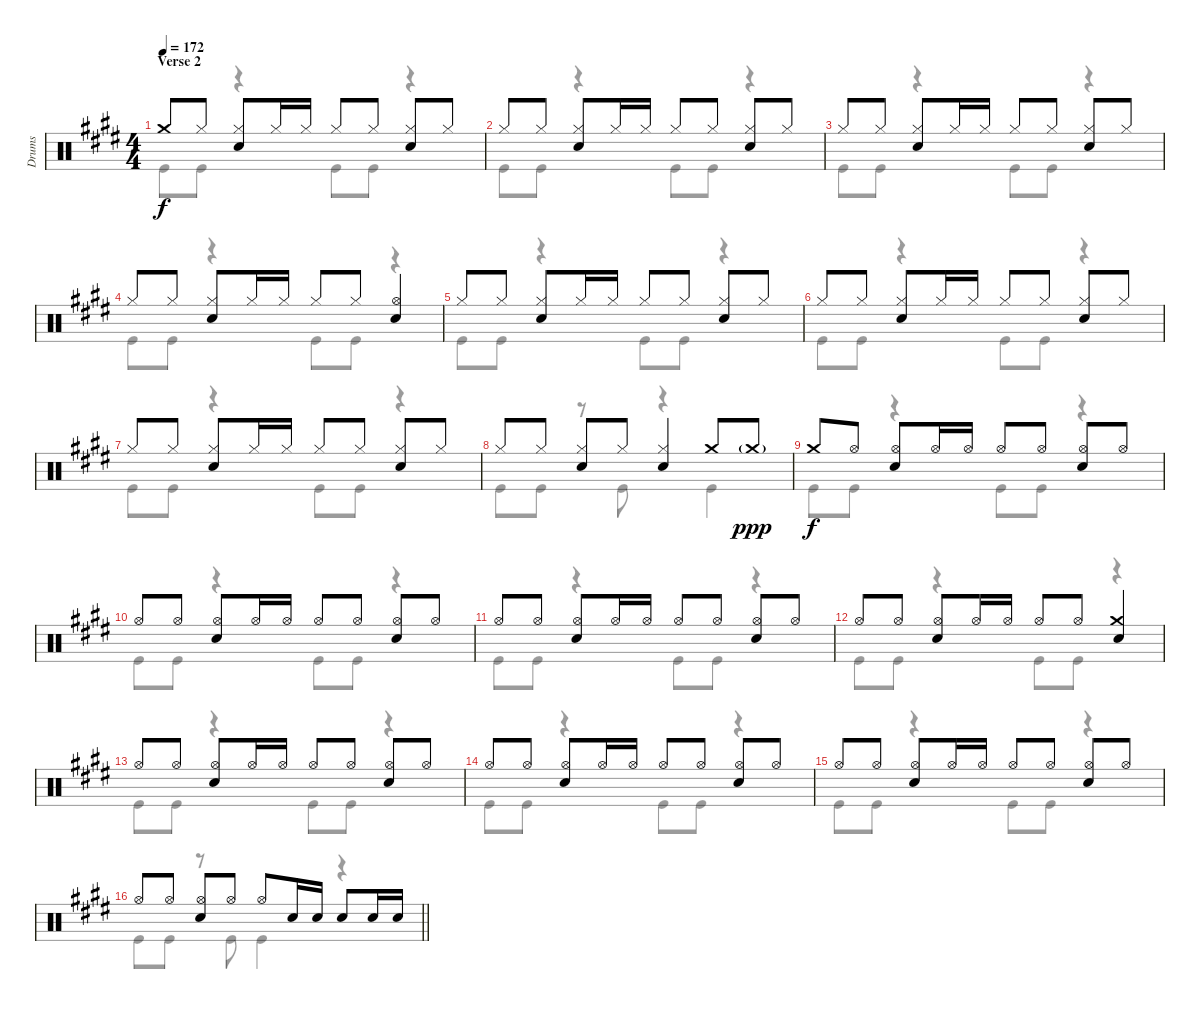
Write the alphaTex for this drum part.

\track ("Drums" "Drums") {instrument percussion}
\staff {score}
\articulation defaults
\voice
\ts (4 4)
\section ("" "Verse 2")
\tempo 172
\clef neutral
\ks e "Crash medium (hit)".8{dy f} "Hi-Hat (closed)".8
("Hi-Hat (closed)" "Electric Snare (hit)").8 "Hi-Hat (closed)".16 "Hi-Hat (closed)".16 "Hi-Hat (closed)".8 "Hi-Hat (closed)".8 ("Hi-Hat (closed)" "Electric Snare (hit)").8 "Hi-Hat (closed)".8 |
"Hi-Hat (closed)".8 "Hi-Hat (closed)".8 ("Hi-Hat (closed)" "Electric Snare (hit)").8 "Hi-Hat (closed)".16 "Hi-Hat (closed)".16 "Hi-Hat (closed)".8 "Hi-Hat (closed)".8 ("Hi-Hat (closed)" "Electric Snare (hit)").8 "Hi-Hat (closed)".8 |
"Hi-Hat (closed)".8 "Hi-Hat (closed)".8 ("Hi-Hat (closed)" "Electric Snare (hit)").8 "Hi-Hat (closed)".16 "Hi-Hat (closed)".16 "Hi-Hat (closed)".8 "Hi-Hat (closed)".8 ("Hi-Hat (closed)" "Electric Snare (hit)").8 "Hi-Hat (closed)".8 |
"Hi-Hat (closed)".8 "Hi-Hat (closed)".8 ("Hi-Hat (closed)" "Electric Snare (hit)").8 "Hi-Hat (closed)".16 "Hi-Hat (closed)".16 "Hi-Hat (closed)".8 "Hi-Hat (closed)".8 ("Hi-Hat (open)" "Electric Snare (hit)").4 |
"Hi-Hat (closed)".8 "Hi-Hat (closed)".8 ("Hi-Hat (closed)" "Electric Snare (hit)").8 "Hi-Hat (closed)".16 "Hi-Hat (closed)".16 "Hi-Hat (closed)".8 "Hi-Hat (closed)".8 ("Hi-Hat (closed)" "Electric Snare (hit)").8 "Hi-Hat (closed)".8 |
"Hi-Hat (closed)".8 "Hi-Hat (closed)".8 ("Hi-Hat (closed)" "Electric Snare (hit)").8 "Hi-Hat (closed)".16 "Hi-Hat (closed)".16 "Hi-Hat (closed)".8 "Hi-Hat (closed)".8 ("Hi-Hat (closed)" "Electric Snare (hit)").8 "Hi-Hat (closed)".8 |
"Hi-Hat (closed)".8 "Hi-Hat (closed)".8 ("Hi-Hat (closed)" "Electric Snare (hit)").8 "Hi-Hat (closed)".16 "Hi-Hat (closed)".16 "Hi-Hat (closed)".8 "Hi-Hat (closed)".8 ("Hi-Hat (closed)" "Electric Snare (hit)").8 "Hi-Hat (closed)".8 |
"Hi-Hat (closed)".8 "Hi-Hat (closed)".8 ("Hi-Hat (closed)" "Electric Snare (hit)").8 "Hi-Hat (closed)".8 ("Hi-Hat (closed)" "Electric Snare (hit)").4 "Crash medium (hit)".8 "Crash medium (hit)"{g}.8{dy ppp} |
"Crash medium (hit)".8{dy f} "Hi-Hat (open)".8 ("Hi-Hat (open)" "Electric Snare (hit)").8 "Hi-Hat (open)".16 "Hi-Hat (open)".16 "Hi-Hat (open)".8 "Hi-Hat (open)".8 ("Hi-Hat (open)" "Electric Snare (hit)").8 "Hi-Hat (open)".8 |
"Hi-Hat (open)".8 "Hi-Hat (open)".8 ("Hi-Hat (open)" "Electric Snare (hit)").8 "Hi-Hat (open)".16 "Hi-Hat (open)".16 "Hi-Hat (open)".8 "Hi-Hat (open)".8 ("Hi-Hat (open)" "Electric Snare (hit)").8 "Hi-Hat (open)".8 |
"Hi-Hat (open)".8 "Hi-Hat (open)".8 ("Hi-Hat (open)" "Electric Snare (hit)").8 "Hi-Hat (open)".16 "Hi-Hat (open)".16 "Hi-Hat (open)".8 "Hi-Hat (open)".8 ("Hi-Hat (open)" "Electric Snare (hit)").8 "Hi-Hat (open)".8 |
"Hi-Hat (open)".8 "Hi-Hat (open)".8 ("Hi-Hat (open)" "Electric Snare (hit)").8 "Hi-Hat (open)".16 "Hi-Hat (open)".16 "Hi-Hat (open)".8 "Hi-Hat (open)".8 ("Crash medium (hit)" "Electric Snare (hit)").4 |
"Hi-Hat (open)".8 "Hi-Hat (open)".8 ("Hi-Hat (open)" "Electric Snare (hit)").8 "Hi-Hat (open)".16 "Hi-Hat (open)".16 "Hi-Hat (open)".8 "Hi-Hat (open)".8 ("Hi-Hat (open)" "Electric Snare (hit)").8 "Hi-Hat (open)".8 |
"Hi-Hat (open)".8 "Hi-Hat (open)".8 ("Hi-Hat (open)" "Electric Snare (hit)").8 "Hi-Hat (open)".16 "Hi-Hat (open)".16 "Hi-Hat (open)".8 "Hi-Hat (open)".8 ("Hi-Hat (open)" "Electric Snare (hit)").8 "Hi-Hat (open)".8 |
"Hi-Hat (open)".8 "Hi-Hat (open)".8 ("Hi-Hat (open)" "Electric Snare (hit)").8 "Hi-Hat (open)".16 "Hi-Hat (open)".16 "Hi-Hat (open)".8 "Hi-Hat (open)".8 ("Hi-Hat (open)" "Electric Snare (hit)").8 "Hi-Hat (open)".8 |
\barLineRight lightlight "Hi-Hat (open)".8 "Hi-Hat (open)".8
("Hi-Hat (open)" "Electric Snare (hit)").8 "Hi-Hat (open)".8 "Hi-Hat (open)".8 "Electric Snare (hit)".16 "Electric Snare (hit)".16 "Electric Snare (hit)".8 "Electric Snare (hit)".16 "Electric Snare (hit)".16
\voice
\clef neutral
\ottava regular
\simile none
\ks e "Kick (hit)".8{dy f} "Kick (hit)".8
r.4 "Kick (hit)".8 "Kick (hit)".8 r.4 |
"Kick (hit)".8 "Kick (hit)".8 r.4 "Kick (hit)".8 "Kick (hit)".8 r.4 |
"Kick (hit)".8 "Kick (hit)".8 r.4 "Kick (hit)".8 "Kick (hit)".8 r.4 |
"Kick (hit)".8 "Kick (hit)".8 r.4 "Kick (hit)".8 "Kick (hit)".8 r.4 |
"Kick (hit)".8 "Kick (hit)".8 r.4 "Kick (hit)".8 "Kick (hit)".8 r.4 |
"Kick (hit)".8 "Kick (hit)".8 r.4 "Kick (hit)".8 "Kick (hit)".8 r.4 |
"Kick (hit)".8 "Kick (hit)".8 r.4 "Kick (hit)".8 "Kick (hit)".8 r.4 |
"Kick (hit)".8 "Kick (hit)".8 r.8 "Kick (hit)".8 r.4 "Kick (hit)".4 |
"Kick (hit)".8 "Kick (hit)".8 r.4 "Kick (hit)".8 "Kick (hit)".8 r.4 |
"Kick (hit)".8 "Kick (hit)".8 r.4 "Kick (hit)".8 "Kick (hit)".8 r.4 |
"Kick (hit)".8 "Kick (hit)".8 r.4 "Kick (hit)".8 "Kick (hit)".8 r.4 |
"Kick (hit)".8 "Kick (hit)".8 r.4 "Kick (hit)".8 "Kick (hit)".8 r.4 |
"Kick (hit)".8 "Kick (hit)".8 r.4 "Kick (hit)".8 "Kick (hit)".8 r.4 |
"Kick (hit)".8 "Kick (hit)".8 r.4 "Kick (hit)".8 "Kick (hit)".8 r.4 |
"Kick (hit)".8 "Kick (hit)".8 r.4 "Kick (hit)".8 "Kick (hit)".8 r.4 |
\barLineRight lightlight "Kick (hit)".8 "Kick (hit)".8
r.8 "Kick (hit)".8 "Kick (hit)".4 r.4
